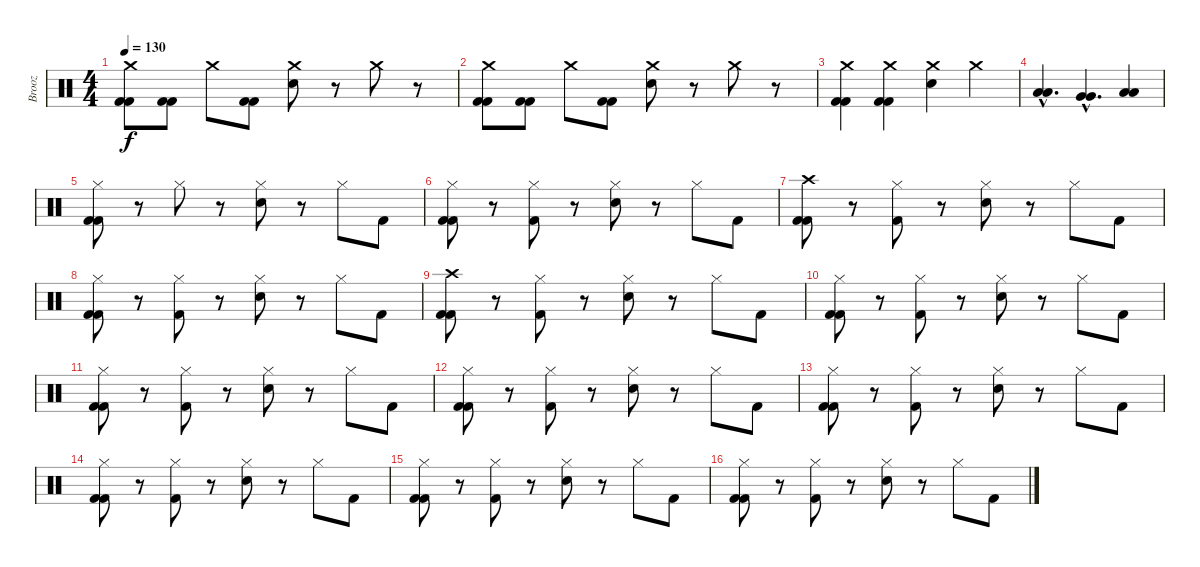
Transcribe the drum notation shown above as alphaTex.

\track ("Brooz" "Brooz") {instrument percussion}
\staff {score}
\articulation defaults
\ts (4 4)
\tempo 130
\clef neutral
\ks c
("Kick (hit) 2" "Crash medium (hit)" "Kick (hit) 2").8{dy f} ("Kick (hit) 2" "Kick (hit) 2").8 "Crash medium (hit)".8 ("Kick (hit) 2" "Kick (hit) 2").8 ("Crash medium (hit)" "Electric Snare (hit)").8 r.8 "Crash medium (hit)".8 r.8 |
("Kick (hit) 2" "Crash medium (hit)" "Kick (hit) 2").8 ("Kick (hit) 2" "Kick (hit) 2").8 "Crash medium (hit)".8 ("Kick (hit) 2" "Kick (hit) 2").8 ("Crash medium (hit)" "Electric Snare (hit)").8 r.8 "Crash medium (hit)".8 r.8 |
("Kick (hit) 2" "Crash medium (hit)" "Kick (hit) 2").4 ("Kick (hit) 2" "Crash medium (hit)" "Kick (hit) 2").4 ("Crash medium (hit)" "Electric Snare (hit)").4 "Crash medium (hit)".4 |
("Low Tom (hit)"{hac} "Low Tom (hit)"{hac}).4{d} ("Very Low Tom (hit)"{hac} "Very Low Tom (hit)"{hac}).4{d} ("Low Floor Tom (hit)" "Low Floor Tom (hit)").4 |
("Kick (hit) 2" "Hi-Hat (closed)" "Kick (hit) 2").8 r.8 "Hi-Hat (closed)".8 r.8 ("Hi-Hat (closed)" "Electric Snare (hit)").8 r.8 "Hi-Hat (closed)".8 "Kick (hit) 2".8 |
("Kick (hit) 2" "Hi-Hat (closed)" "Kick (hit) 2").8 r.8 ("Hi-Hat (closed)" "Kick (hit) 2").8 r.8 ("Hi-Hat (closed)" "Electric Snare (hit)").8 r.8 "Hi-Hat (closed)".8 "Kick (hit) 2".8 |
("Kick (hit) 2" "Crash high (hit)" "Kick (hit) 2").8 r.8 ("Hi-Hat (closed)" "Kick (hit) 2").8 r.8 ("Hi-Hat (closed)" "Electric Snare (hit)").8 r.8 "Hi-Hat (closed)".8 "Kick (hit) 2".8 |
("Kick (hit) 2" "Hi-Hat (closed)" "Kick (hit) 2").8 r.8 ("Hi-Hat (closed)" "Kick (hit) 2").8 r.8 ("Hi-Hat (closed)" "Electric Snare (hit)").8 r.8 "Hi-Hat (closed)".8 "Kick (hit) 2".8 |
("Kick (hit) 2" "Crash high (hit)" "Kick (hit) 2").8 r.8 ("Hi-Hat (closed)" "Kick (hit) 2").8 r.8 ("Hi-Hat (closed)" "Electric Snare (hit)").8 r.8 "Hi-Hat (closed)".8 "Kick (hit) 2".8 |
("Kick (hit) 2" "Hi-Hat (closed)" "Kick (hit) 2").8 r.8 ("Hi-Hat (closed)" "Kick (hit) 2").8 r.8 ("Hi-Hat (closed)" "Electric Snare (hit)").8 r.8 "Hi-Hat (closed)".8 "Kick (hit) 2".8 |
("Kick (hit) 2" "Hi-Hat (closed)" "Kick (hit) 2").8 r.8 ("Hi-Hat (closed)" "Kick (hit) 2").8 r.8 ("Hi-Hat (closed)" "Electric Snare (hit)").8 r.8 "Hi-Hat (closed)".8 "Kick (hit) 2".8 |
("Kick (hit) 2" "Hi-Hat (closed)" "Kick (hit) 2").8 r.8 ("Hi-Hat (closed)" "Kick (hit) 2").8 r.8 ("Hi-Hat (closed)" "Electric Snare (hit)").8 r.8 "Hi-Hat (closed)".8 "Kick (hit) 2".8 |
("Kick (hit) 2" "Hi-Hat (closed)" "Kick (hit) 2").8 r.8 ("Hi-Hat (closed)" "Kick (hit) 2").8 r.8 ("Hi-Hat (closed)" "Electric Snare (hit)").8 r.8 "Hi-Hat (closed)".8 "Kick (hit) 2".8 |
("Kick (hit) 2" "Hi-Hat (closed)" "Kick (hit) 2").8 r.8 ("Hi-Hat (closed)" "Kick (hit) 2").8 r.8 ("Hi-Hat (closed)" "Electric Snare (hit)").8 r.8 "Hi-Hat (closed)".8 "Kick (hit) 2".8 |
("Kick (hit) 2" "Hi-Hat (closed)" "Kick (hit) 2").8 r.8 ("Hi-Hat (closed)" "Kick (hit) 2").8 r.8 ("Hi-Hat (closed)" "Electric Snare (hit)").8 r.8 "Hi-Hat (closed)".8 "Kick (hit) 2".8 |
("Kick (hit) 2" "Hi-Hat (closed)" "Kick (hit) 2").8 r.8 ("Hi-Hat (closed)" "Kick (hit) 2").8 r.8 ("Hi-Hat (closed)" "Electric Snare (hit)").8 r.8 "Hi-Hat (closed)".8 "Kick (hit) 2".8
